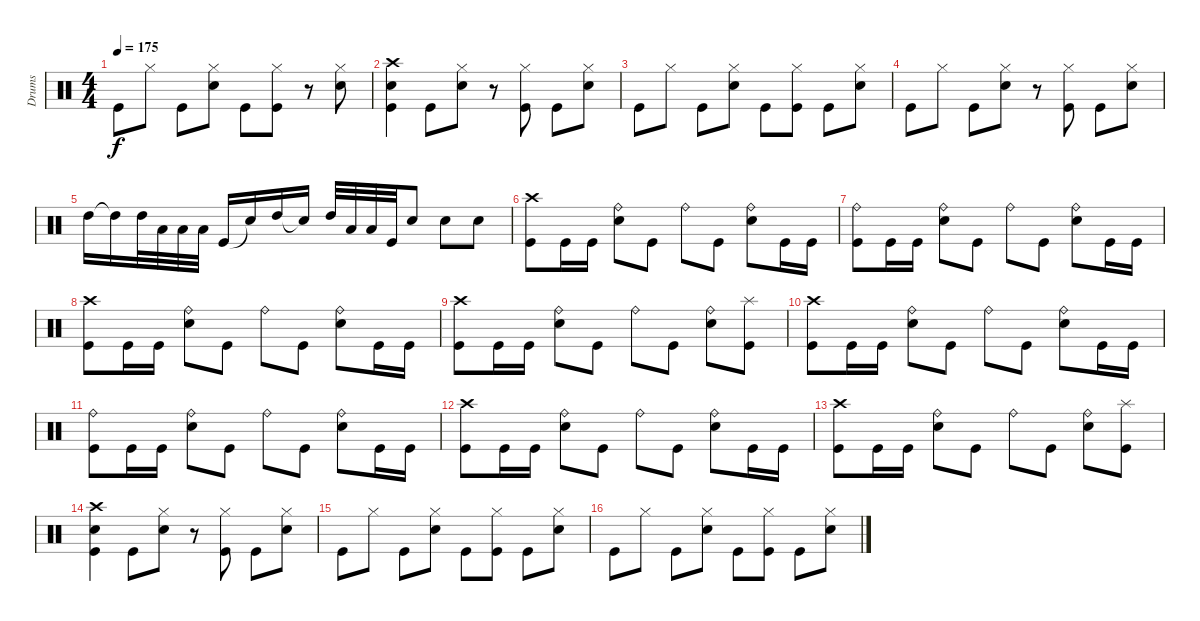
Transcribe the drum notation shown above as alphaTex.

\track ("Drums" "Drums") {instrument percussion}
\staff {score}
\articulation defaults
\ts (4 4)
\tempo 175
\clef neutral
\ks c "Kick (hit)".8{dy f} "Hi-Hat (closed)".8 "Kick (hit)".8
("Hi-Hat (closed)" "Electric Snare (hit)").8 "Kick (hit)".8 ("Hi-Hat (closed)" "Kick (hit)").8 r.8 ("Hi-Hat (closed)" "Electric Snare (hit)").8 |
("Crash high (hit)" "Electric Snare (hit)" "Kick (hit)").4 "Kick (hit)".8 ("Hi-Hat (closed)" "Electric Snare (hit)").8 r.8 ("Hi-Hat (closed)" "Kick (hit)").8 "Kick (hit)".8 ("Hi-Hat (closed)" "Electric Snare (hit)").8 |
"Kick (hit)".8 "Hi-Hat (closed)".8 "Kick (hit)".8 ("Hi-Hat (closed)" "Electric Snare (hit)").8 "Kick (hit)".8 ("Hi-Hat (closed)" "Kick (hit)").8 "Kick (hit)".8 ("Hi-Hat (closed)" "Electric Snare (hit)").8 |
"Kick (hit)".8 "Hi-Hat (closed)".8 "Kick (hit)".8 ("Hi-Hat (closed)" "Electric Snare (hit)").8 r.8 ("Hi-Hat (closed)" "Kick (hit)").8 "Kick (hit)".8 ("Hi-Hat (closed)" "Electric Snare (hit)").8 |
"High Tom (hit)".16 "High Tom (hit)"{t}.16 "High Tom (hit)".32 "Low Tom (hit)".32 "Low Tom (hit)".32 "Low Tom (hit)".32 "Kick (hit)".16 "Snare (hit)"{t}.16 "High Tom (hit)".16 "Snare (hit)"{t}.16 "High Tom (hit)".32 "Low Tom (hit)".32 "Low Tom (hit)".32 "Kick (hit)".32 "Electric Snare (hit)".8 "Electric Snare (hit)".8 "Electric Snare (hit)".8 |
("Crash high (hit)" "Kick (hit)").8 "Kick (hit)".16 "Kick (hit)".16 ("Ride (bell)" "Electric Snare (hit)").8 "Kick (hit)".8 "Ride (bell)".8 "Kick (hit)".8 ("Ride (bell)" "Electric Snare (hit)").8 "Kick (hit)".16 "Kick (hit)".16 |
("Ride (bell)" "Kick (hit)").8 "Kick (hit)".16 "Kick (hit)".16 ("Ride (bell)" "Electric Snare (hit)").8 "Kick (hit)".8 "Ride (bell)".8 "Kick (hit)".8 ("Ride (bell)" "Electric Snare (hit)").8 "Kick (hit)".16 "Kick (hit)".16 |
("Crash high (hit)" "Kick (hit)").8 "Kick (hit)".16 "Kick (hit)".16 ("Ride (bell)" "Electric Snare (hit)").8 "Kick (hit)".8 "Ride (bell)".8 "Kick (hit)".8 ("Ride (bell)" "Electric Snare (hit)").8 "Kick (hit)".16 "Kick (hit)".16 |
("Crash high (hit)" "Kick (hit)").8 "Kick (hit)".16 "Kick (hit)".16 ("Ride (bell)" "Electric Snare (hit)").8 "Kick (hit)".8 "Ride (bell)".8 "Kick (hit)".8 ("Ride (bell)" "Electric Snare (hit)").8 ("Splash (hit)" "Kick (hit)").8 |
("Crash high (hit)" "Kick (hit)").8 "Kick (hit)".16 "Kick (hit)".16 ("Ride (bell)" "Electric Snare (hit)").8 "Kick (hit)".8 "Ride (bell)".8 "Kick (hit)".8 ("Ride (bell)" "Electric Snare (hit)").8 "Kick (hit)".16 "Kick (hit)".16 |
("Ride (bell)" "Kick (hit)").8 "Kick (hit)".16 "Kick (hit)".16 ("Ride (bell)" "Electric Snare (hit)").8 "Kick (hit)".8 "Ride (bell)".8 "Kick (hit)".8 ("Ride (bell)" "Electric Snare (hit)").8 "Kick (hit)".16 "Kick (hit)".16 |
("Crash high (hit)" "Kick (hit)").8 "Kick (hit)".16 "Kick (hit)".16 ("Ride (bell)" "Electric Snare (hit)").8 "Kick (hit)".8 "Ride (bell)".8 "Kick (hit)".8 ("Ride (bell)" "Electric Snare (hit)").8 "Kick (hit)".16 "Kick (hit)".16 |
("Crash high (hit)" "Kick (hit)").8 "Kick (hit)".16 "Kick (hit)".16 ("Ride (bell)" "Electric Snare (hit)").8 "Kick (hit)".8 "Ride (bell)".8 "Kick (hit)".8 ("Ride (bell)" "Electric Snare (hit)").8 ("Splash (hit)" "Kick (hit)").8 |
("Crash high (hit)" "Electric Snare (hit)" "Kick (hit)").4 "Kick (hit)".8 ("Hi-Hat (closed)" "Electric Snare (hit)").8 r.8 ("Hi-Hat (closed)" "Kick (hit)").8 "Kick (hit)".8 ("Hi-Hat (closed)" "Electric Snare (hit)").8 |
"Kick (hit)".8 "Hi-Hat (closed)".8 "Kick (hit)".8 ("Hi-Hat (closed)" "Electric Snare (hit)").8 "Kick (hit)".8 ("Hi-Hat (closed)" "Kick (hit)").8 "Kick (hit)".8 ("Hi-Hat (closed)" "Electric Snare (hit)").8 |
"Kick (hit)".8 "Hi-Hat (closed)".8 "Kick (hit)".8 ("Hi-Hat (closed)" "Electric Snare (hit)").8 "Kick (hit)".8 ("Hi-Hat (closed)" "Kick (hit)").8 "Kick (hit)".8 ("Hi-Hat (closed)" "Electric Snare (hit)").8
